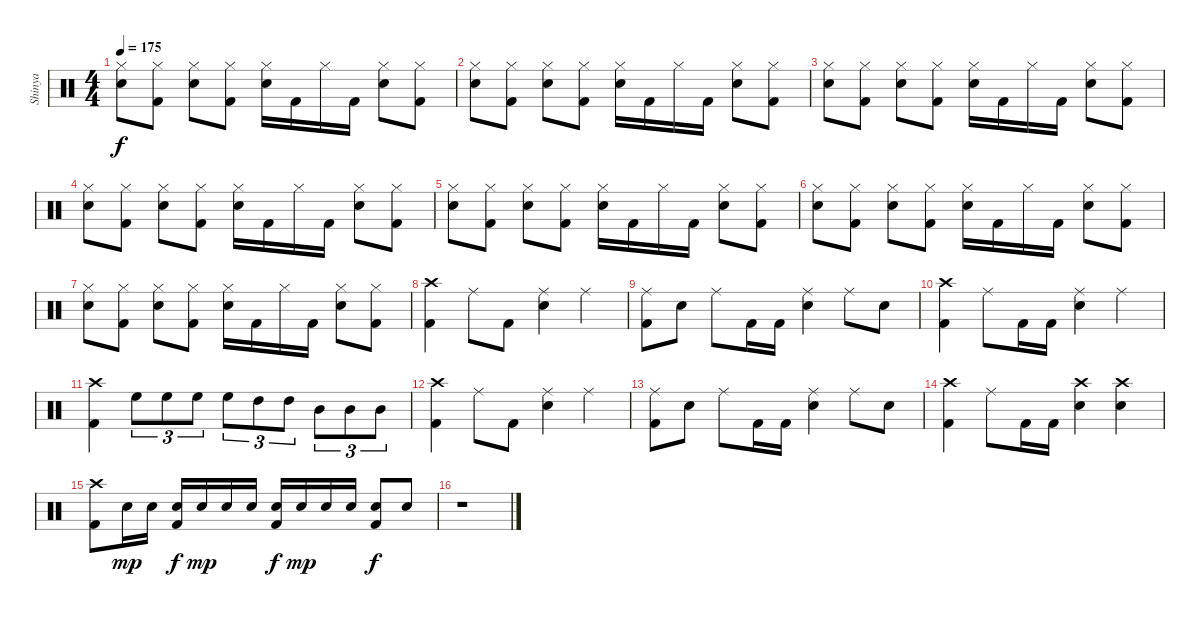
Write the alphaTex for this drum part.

\track ("Shinya" "Shinya") {instrument percussion}
\staff {score}
\articulation defaults
\ts (4 4)
\tempo 175
\clef neutral
\ks c
("Hi-Hat (closed)" "Snare (hit) 2").8{dy f} ("Hi-Hat (closed)" "Kick (hit) 2").8 ("Hi-Hat (closed)" "Snare (hit) 2").8 ("Hi-Hat (closed)" "Kick (hit) 2").8 ("Hi-Hat (closed)" "Snare (hit) 2").16 "Kick (hit) 2".16 "Hi-Hat (closed)".16 "Kick (hit) 2".16 ("Hi-Hat (closed)" "Snare (hit) 2").8 ("Hi-Hat (closed)" "Kick (hit) 2").8 |
("Hi-Hat (closed)" "Snare (hit) 2").8 ("Hi-Hat (closed)" "Kick (hit) 2").8 ("Hi-Hat (closed)" "Snare (hit) 2").8 ("Hi-Hat (closed)" "Kick (hit) 2").8 ("Hi-Hat (closed)" "Snare (hit) 2").16 "Kick (hit) 2".16 "Hi-Hat (closed)".16 "Kick (hit) 2".16 ("Hi-Hat (closed)" "Snare (hit) 2").8 ("Hi-Hat (closed)" "Kick (hit) 2").8 |
("Hi-Hat (closed)" "Snare (hit) 2").8 ("Hi-Hat (closed)" "Kick (hit) 2").8 ("Hi-Hat (closed)" "Snare (hit) 2").8 ("Hi-Hat (closed)" "Kick (hit) 2").8 ("Hi-Hat (closed)" "Snare (hit) 2").16 "Kick (hit) 2".16 "Hi-Hat (closed)".16 "Kick (hit) 2".16 ("Hi-Hat (closed)" "Snare (hit) 2").8 ("Hi-Hat (closed)" "Kick (hit) 2").8 |
("Hi-Hat (closed)" "Snare (hit) 2").8 ("Hi-Hat (closed)" "Kick (hit) 2").8 ("Hi-Hat (closed)" "Snare (hit) 2").8 ("Hi-Hat (closed)" "Kick (hit) 2").8 ("Hi-Hat (closed)" "Snare (hit) 2").16 "Kick (hit) 2".16 "Hi-Hat (closed)".16 "Kick (hit) 2".16 ("Hi-Hat (closed)" "Snare (hit) 2").8 ("Hi-Hat (closed)" "Kick (hit) 2").8 |
("Hi-Hat (closed)" "Snare (hit) 2").8 ("Hi-Hat (closed)" "Kick (hit) 2").8 ("Hi-Hat (closed)" "Snare (hit) 2").8 ("Hi-Hat (closed)" "Kick (hit) 2").8 ("Hi-Hat (closed)" "Snare (hit) 2").16 "Kick (hit) 2".16 "Hi-Hat (closed)".16 "Kick (hit) 2".16 ("Hi-Hat (closed)" "Snare (hit) 2").8 ("Hi-Hat (closed)" "Kick (hit) 2").8 |
("Hi-Hat (closed)" "Snare (hit) 2").8 ("Hi-Hat (closed)" "Kick (hit) 2").8 ("Hi-Hat (closed)" "Snare (hit) 2").8 ("Hi-Hat (closed)" "Kick (hit) 2").8 ("Hi-Hat (closed)" "Snare (hit) 2").16 "Kick (hit) 2".16 "Hi-Hat (closed)".16 "Kick (hit) 2".16 ("Hi-Hat (closed)" "Snare (hit) 2").8 ("Hi-Hat (closed)" "Kick (hit) 2").8 |
("Hi-Hat (closed)" "Snare (hit) 2").8 ("Hi-Hat (closed)" "Kick (hit) 2").8 ("Hi-Hat (closed)" "Snare (hit) 2").8 ("Hi-Hat (closed)" "Kick (hit) 2").8 ("Hi-Hat (closed)" "Snare (hit) 2").16 "Kick (hit) 2".16 "Hi-Hat (closed)".16 "Kick (hit) 2".16 ("Hi-Hat (closed)" "Snare (hit) 2").8 ("Hi-Hat (closed)" "Kick (hit) 2").8 |
("Crash high (hit)" "Kick (hit) 2").4 "Ride (middle)".8 "Kick (hit) 2".8 ("Ride (middle)" "Snare (hit) 2").4 "Ride (middle)".4 |
("Ride (middle)" "Kick (hit) 2").8 "Snare (hit) 2".8 "Ride (middle)".8 "Kick (hit) 2".16 "Kick (hit) 2".16 ("Ride (middle)" "Snare (hit) 2").4 "Ride (middle)".8 "Snare (hit) 2".8 |
("Crash high (hit)" "Kick (hit) 2").4 "Ride (middle)".8 "Kick (hit) 2".16 "Kick (hit) 2".16 ("Ride (middle)" "Snare (hit) 2").4 "Ride (middle)".4 |
("Crash high (hit)" "Kick (hit) 2").4 "High Floor Tom (hit)".8{tu (3 2)} "High Floor Tom (hit)".8{tu (3 2)} "High Floor Tom (hit)".8{tu (3 2)} "High Floor Tom (hit)".8{tu (3 2)} "High Tom (hit)".8{tu (3 2)} "High Tom (hit)".8{tu (3 2)} "Mid Tom (hit)".8{tu (3 2)} "Mid Tom (hit)".8{tu (3 2)} "Mid Tom (hit)".8{tu (3 2)} |
("Crash high (hit)" "Kick (hit) 2").4 "Ride (middle)".8 "Kick (hit) 2".8 ("Ride (middle)" "Snare (hit) 2").4 "Ride (middle)".4 |
("Ride (middle)" "Kick (hit) 2").8 "Snare (hit) 2".8 "Ride (middle)".8 "Kick (hit) 2".16 "Kick (hit) 2".16 ("Ride (middle)" "Snare (hit) 2").4 "Ride (middle)".8 "Snare (hit) 2".8 |
("Crash high (hit)" "Kick (hit) 2").4 "Ride (middle)".8 "Kick (hit) 2".16 "Kick (hit) 2".16 ("Crash high (hit)" "Snare (hit) 2").4 ("Crash high (hit)" "Snare (hit) 2").4 |
("Kick (hit) 2" "Crash high (hit)").8 "Snare (hit) 2".16{dy mp} "Snare (hit) 2".16 ("Kick (hit) 2" "Snare (hit) 2").16{dy f} "Snare (hit) 2".16{dy mp} "Snare (hit) 2".16 "Snare (hit) 2".16 ("Kick (hit) 2" "Snare (hit) 2").16{dy f} "Snare (hit) 2".16{dy mp} "Snare (hit) 2".16 "Snare (hit) 2".16 ("Kick (hit) 2" "Snare (hit) 2").8{dy f} "Snare (hit) 2".8 |
r.1
